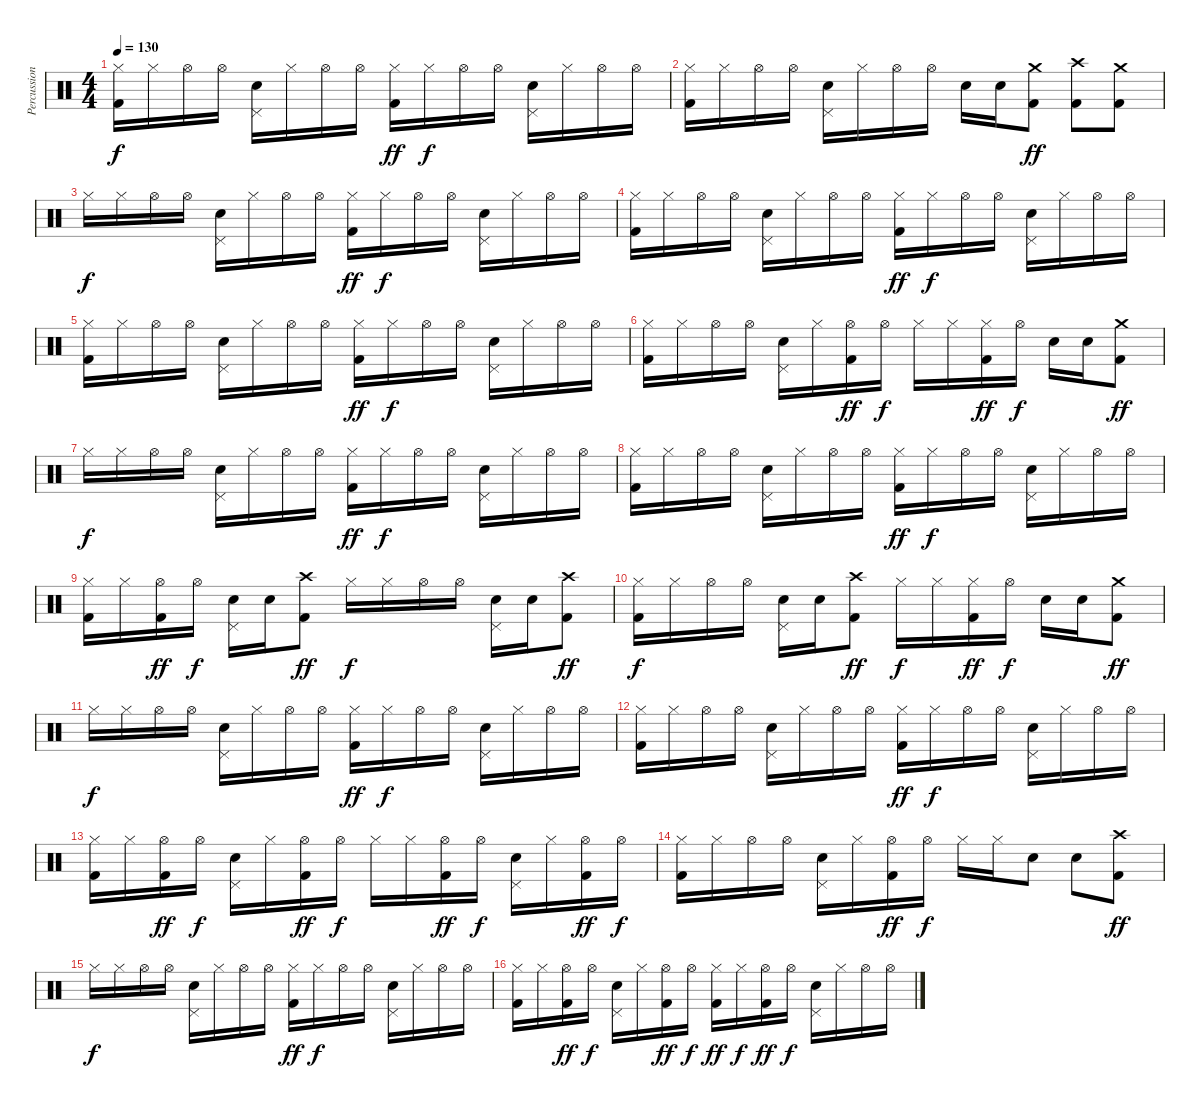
\track ("Percussion" "Percussion") {instrument percussion}
\staff {score}
\articulation defaults
\ts (4 4)
\tempo 130
\clef neutral
\ks c
("Kick (hit) 2" "Hi-Hat (closed)").16{dy f} "Hi-Hat (closed)".16 "Hi-Hat (open)".16 "Hi-Hat (open)".16 ("Snare (hit) 2" "Pedal Hi-Hat (hit)").16 "Hi-Hat (closed)".16 "Hi-Hat (open)".16 "Hi-Hat (open)".16 ("Kick (hit) 2" "Hi-Hat (closed)").16{dy ff} "Hi-Hat (closed)".16{dy f} "Hi-Hat (open)".16 "Hi-Hat (open)".16 ("Snare (hit) 2" "Pedal Hi-Hat (hit)").16 "Hi-Hat (closed)".16 "Hi-Hat (open)".16 "Hi-Hat (open)".16 |
("Kick (hit) 2" "Hi-Hat (closed)").16 "Hi-Hat (closed)".16 "Hi-Hat (open)".16 "Hi-Hat (open)".16 ("Snare (hit) 2" "Pedal Hi-Hat (hit)").16 "Hi-Hat (closed)".16 "Hi-Hat (open)".16 "Hi-Hat (open)".16 "Snare (hit) 2".16 "Snare (hit) 2".16 ("Kick (hit) 2" "Crash medium (hit)").8{dy ff} ("Kick (hit) 2" "Crash high (hit)").8 ("Kick (hit) 2" "Crash medium (hit)").8 |
"Hi-Hat (closed)".16{dy f} "Hi-Hat (closed)".16 "Hi-Hat (open)".16 "Hi-Hat (open)".16 ("Snare (hit) 2" "Pedal Hi-Hat (hit)").16 "Hi-Hat (closed)".16 "Hi-Hat (open)".16 "Hi-Hat (open)".16 ("Kick (hit) 2" "Hi-Hat (closed)").16{dy ff} "Hi-Hat (closed)".16{dy f} "Hi-Hat (open)".16 "Hi-Hat (open)".16 ("Snare (hit) 2" "Pedal Hi-Hat (hit)").16 "Hi-Hat (closed)".16 "Hi-Hat (open)".16 "Hi-Hat (open)".16 |
("Kick (hit) 2" "Hi-Hat (closed)").16 "Hi-Hat (closed)".16 "Hi-Hat (open)".16 "Hi-Hat (open)".16 ("Snare (hit) 2" "Pedal Hi-Hat (hit)").16 "Hi-Hat (closed)".16 "Hi-Hat (open)".16 "Hi-Hat (open)".16 ("Kick (hit) 2" "Hi-Hat (closed)").16{dy ff} "Hi-Hat (closed)".16{dy f} "Hi-Hat (open)".16 "Hi-Hat (open)".16 ("Snare (hit) 2" "Pedal Hi-Hat (hit)").16 "Hi-Hat (closed)".16 "Hi-Hat (open)".16 "Hi-Hat (open)".16 |
("Kick (hit) 2" "Hi-Hat (closed)").16 "Hi-Hat (closed)".16 "Hi-Hat (open)".16 "Hi-Hat (open)".16 ("Snare (hit) 2" "Pedal Hi-Hat (hit)").16 "Hi-Hat (closed)".16 "Hi-Hat (open)".16 "Hi-Hat (open)".16 ("Kick (hit) 2" "Hi-Hat (closed)").16{dy ff} "Hi-Hat (closed)".16{dy f} "Hi-Hat (open)".16 "Hi-Hat (open)".16 ("Snare (hit) 2" "Pedal Hi-Hat (hit)").16 "Hi-Hat (closed)".16 "Hi-Hat (open)".16 "Hi-Hat (open)".16 |
("Kick (hit) 2" "Hi-Hat (closed)").16 "Hi-Hat (closed)".16 "Hi-Hat (open)".16 "Hi-Hat (open)".16 ("Snare (hit) 2" "Pedal Hi-Hat (hit)").16 "Hi-Hat (closed)".16 ("Kick (hit) 2" "Hi-Hat (open)").16{dy ff} "Hi-Hat (open)".16{dy f} "Hi-Hat (closed)".16 "Hi-Hat (closed)".16 ("Kick (hit) 2" "Hi-Hat (closed)").16{dy ff} "Hi-Hat (open)".16{dy f} "Snare (hit) 2".16 "Snare (hit) 2".16 ("Kick (hit) 2" "Crash medium (hit)").8{dy ff} |
"Hi-Hat (closed)".16{dy f} "Hi-Hat (closed)".16 "Hi-Hat (open)".16 "Hi-Hat (open)".16 ("Snare (hit) 2" "Pedal Hi-Hat (hit)").16 "Hi-Hat (closed)".16 "Hi-Hat (open)".16 "Hi-Hat (open)".16 ("Kick (hit) 2" "Hi-Hat (closed)").16{dy ff} "Hi-Hat (closed)".16{dy f} "Hi-Hat (open)".16 "Hi-Hat (open)".16 ("Snare (hit) 2" "Pedal Hi-Hat (hit)").16 "Hi-Hat (closed)".16 "Hi-Hat (open)".16 "Hi-Hat (open)".16 |
("Kick (hit) 2" "Hi-Hat (closed)").16 "Hi-Hat (closed)".16 "Hi-Hat (open)".16 "Hi-Hat (open)".16 ("Snare (hit) 2" "Pedal Hi-Hat (hit)").16 "Hi-Hat (closed)".16 "Hi-Hat (open)".16 "Hi-Hat (open)".16 ("Kick (hit) 2" "Hi-Hat (closed)").16{dy ff} "Hi-Hat (closed)".16{dy f} "Hi-Hat (open)".16 "Hi-Hat (open)".16 ("Snare (hit) 2" "Pedal Hi-Hat (hit)").16 "Hi-Hat (closed)".16 "Hi-Hat (open)".16 "Hi-Hat (open)".16 |
("Kick (hit) 2" "Hi-Hat (closed)").16 "Hi-Hat (closed)".16 ("Kick (hit) 2" "Hi-Hat (open)").16{dy ff} "Hi-Hat (open)".16{dy f} ("Snare (hit) 2" "Pedal Hi-Hat (hit)").16 "Snare (hit) 2".16 ("Kick (hit) 2" "Crash high (hit)").8{dy ff} "Hi-Hat (closed)".16{dy f} "Hi-Hat (closed)".16 "Hi-Hat (open)".16 "Hi-Hat (open)".16 ("Snare (hit) 2" "Pedal Hi-Hat (hit)").16 "Snare (hit) 2".16 ("Kick (hit) 2" "Crash high (hit)").8{dy ff} |
("Kick (hit) 2" "Hi-Hat (closed)").16{dy f} "Hi-Hat (closed)".16 "Hi-Hat (open)".16 "Hi-Hat (open)".16 ("Snare (hit) 2" "Pedal Hi-Hat (hit)").16 "Snare (hit) 2".16 ("Kick (hit) 2" "Crash high (hit)").8{dy ff} "Hi-Hat (closed)".16{dy f} "Hi-Hat (closed)".16 ("Kick (hit) 2" "Hi-Hat (closed)").16{dy ff} "Hi-Hat (open)".16{dy f} "Snare (hit) 2".16 "Snare (hit) 2".16 ("Kick (hit) 2" "Crash medium (hit)").8{dy ff} |
"Hi-Hat (closed)".16{dy f} "Hi-Hat (closed)".16 "Hi-Hat (open)".16 "Hi-Hat (open)".16 ("Snare (hit) 2" "Pedal Hi-Hat (hit)").16 "Hi-Hat (closed)".16 "Hi-Hat (open)".16 "Hi-Hat (open)".16 ("Kick (hit) 2" "Hi-Hat (closed)").16{dy ff} "Hi-Hat (closed)".16{dy f} "Hi-Hat (open)".16 "Hi-Hat (open)".16 ("Snare (hit) 2" "Pedal Hi-Hat (hit)").16 "Hi-Hat (closed)".16 "Hi-Hat (open)".16 "Hi-Hat (open)".16 |
("Kick (hit) 2" "Hi-Hat (closed)").16 "Hi-Hat (closed)".16 "Hi-Hat (open)".16 "Hi-Hat (open)".16 ("Snare (hit) 2" "Pedal Hi-Hat (hit)").16 "Hi-Hat (closed)".16 "Hi-Hat (open)".16 "Hi-Hat (open)".16 ("Kick (hit) 2" "Hi-Hat (closed)").16{dy ff} "Hi-Hat (closed)".16{dy f} "Hi-Hat (open)".16 "Hi-Hat (open)".16 ("Snare (hit) 2" "Pedal Hi-Hat (hit)").16 "Hi-Hat (closed)".16 "Hi-Hat (open)".16 "Hi-Hat (open)".16 |
("Kick (hit) 2" "Hi-Hat (closed)").16 "Hi-Hat (closed)".16 ("Kick (hit) 2" "Hi-Hat (open)").16{dy ff} "Hi-Hat (open)".16{dy f} ("Snare (hit) 2" "Pedal Hi-Hat (hit)").16 "Hi-Hat (closed)".16 ("Kick (hit) 2" "Hi-Hat (open)").16{dy ff} "Hi-Hat (open)".16{dy f} "Hi-Hat (closed)".16 "Hi-Hat (closed)".16 ("Kick (hit) 2" "Hi-Hat (open)").16{dy ff} "Hi-Hat (open)".16{dy f} ("Snare (hit) 2" "Pedal Hi-Hat (hit)").16 "Hi-Hat (closed)".16 ("Kick (hit) 2" "Hi-Hat (open)").16{dy ff} "Hi-Hat (open)".16{dy f} |
("Kick (hit) 2" "Hi-Hat (closed)").16 "Hi-Hat (closed)".16 "Hi-Hat (open)".16 "Hi-Hat (open)".16 ("Snare (hit) 2" "Pedal Hi-Hat (hit)").16 "Hi-Hat (closed)".16 ("Kick (hit) 2" "Hi-Hat (open)").16{dy ff} "Hi-Hat (open)".16{dy f} "Hi-Hat (closed)".16 "Hi-Hat (closed)".16 "Snare (hit) 2".8 "Snare (hit) 2".8 ("Kick (hit) 2" "Crash high (hit)").8{dy ff} |
"Hi-Hat (closed)".16{dy f} "Hi-Hat (closed)".16 "Hi-Hat (open)".16 "Hi-Hat (open)".16 ("Snare (hit) 2" "Pedal Hi-Hat (hit)").16 "Hi-Hat (closed)".16 "Hi-Hat (open)".16 "Hi-Hat (open)".16 ("Kick (hit) 2" "Hi-Hat (closed)").16{dy ff} "Hi-Hat (closed)".16{dy f} "Hi-Hat (open)".16 "Hi-Hat (open)".16 ("Snare (hit) 2" "Pedal Hi-Hat (hit)").16 "Hi-Hat (closed)".16 "Hi-Hat (open)".16 "Hi-Hat (open)".16 |
("Kick (hit) 2" "Hi-Hat (closed)").16 "Hi-Hat (closed)".16 ("Kick (hit) 2" "Hi-Hat (open)").16{dy ff} "Hi-Hat (open)".16{dy f} ("Snare (hit) 2" "Pedal Hi-Hat (hit)").16 "Hi-Hat (closed)".16 ("Kick (hit) 2" "Hi-Hat (open)").16{dy ff} "Hi-Hat (open)".16{dy f} ("Kick (hit) 2" "Hi-Hat (closed)").16{dy ff} "Hi-Hat (closed)".16{dy f} ("Kick (hit) 2" "Hi-Hat (open)").16{dy ff} "Hi-Hat (open)".16{dy f} ("Snare (hit) 2" "Pedal Hi-Hat (hit)").16 "Hi-Hat (closed)".16 "Hi-Hat (open)".16 "Hi-Hat (open)".16
